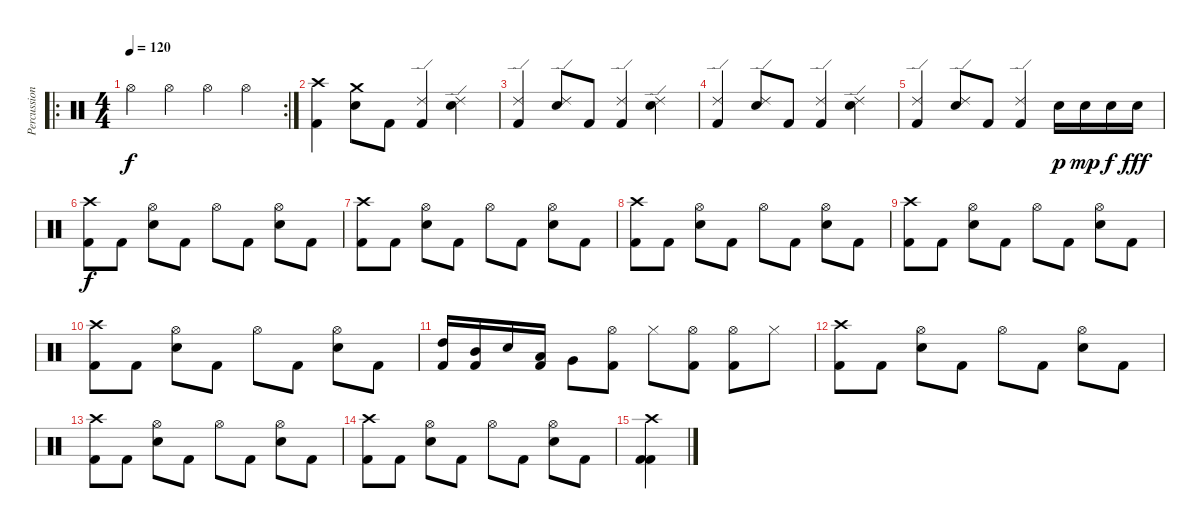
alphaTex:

\track ("Percussion" "Percussion") {instrument percussion}
\staff {score}
\articulation defaults
\ro
\rc 2
\ts (4 4)
\tempo 120
\clef neutral
\ks c "Hi-Hat (open)".4{dy f} "Hi-Hat (open)".4 "Hi-Hat (open)".4 "Hi-Hat (open)".4
|
("Crash high (hit)" "Kick (hit) 2").4 ("Crash medium (hit)" "Electric Snare (hit)").8 "Kick (hit) 2".8 ("Ride (edge) 2" "Kick (hit) 2").4 ("Electric Snare (hit)" "Ride (edge) 2").4 |
("Ride (edge) 2" "Kick (hit) 2").4 ("Electric Snare (hit)" "Ride (edge) 2").8 "Kick (hit) 2".8 ("Ride (edge) 2" "Kick (hit) 2").4 ("Electric Snare (hit)" "Ride (edge) 2").4 |
("Ride (edge) 2" "Kick (hit) 2").4 ("Electric Snare (hit)" "Ride (edge) 2").8 "Kick (hit) 2".8 ("Ride (edge) 2" "Kick (hit) 2").4 ("Electric Snare (hit)" "Ride (edge) 2").4 |
("Ride (edge) 2" "Kick (hit) 2").4 ("Electric Snare (hit)" "Ride (edge) 2").8 "Kick (hit) 2".8 ("Ride (edge) 2" "Kick (hit) 2").4 "Electric Snare (hit)".16{dy p} "Electric Snare (hit)".16{dy mp} "Electric Snare (hit)".16{dy f} "Electric Snare (hit)".16{dy fff} |
("Crash high (hit)" "Kick (hit) 2").8{dy f} "Kick (hit) 2".8 ("Electric Snare (hit)" "Hi-Hat (open)").8 "Kick (hit) 2".8 "Hi-Hat (open)".8 "Kick (hit) 2".8 ("Hi-Hat (open)" "Electric Snare (hit)").8 "Kick (hit) 2".8 |
("Crash high (hit)" "Kick (hit) 2").8 "Kick (hit) 2".8 ("Electric Snare (hit)" "Hi-Hat (open)").8 "Kick (hit) 2".8 "Hi-Hat (open)".8 "Kick (hit) 2".8 ("Hi-Hat (open)" "Electric Snare (hit)").8 "Kick (hit) 2".8 |
("Crash high (hit)" "Kick (hit) 2").8 "Kick (hit) 2".8 ("Electric Snare (hit)" "Hi-Hat (open)").8 "Kick (hit) 2".8 "Hi-Hat (open)".8 "Kick (hit) 2".8 ("Hi-Hat (open)" "Electric Snare (hit)").8 "Kick (hit) 2".8 |
("Crash high (hit)" "Kick (hit) 2").8 "Kick (hit) 2".8 ("Electric Snare (hit)" "Hi-Hat (open)").8 "Kick (hit) 2".8 "Hi-Hat (open)".8 "Kick (hit) 2".8 ("Hi-Hat (open)" "Electric Snare (hit)").8 "Kick (hit) 2".8 |
("Crash high (hit)" "Kick (hit) 2").8 "Kick (hit) 2".8 ("Electric Snare (hit)" "Hi-Hat (open)").8 "Kick (hit) 2".8 "Hi-Hat (open)".8 "Kick (hit) 2".8 ("Hi-Hat (open)" "Electric Snare (hit)").8 "Kick (hit) 2".8 |
("High Tom (hit)" "Kick (hit) 2").16 ("Mid Tom (hit)" "Kick (hit) 2").16 "Electric Snare (hit)".16 ("Low Tom (hit)" "Kick (hit) 2").16 "Very Low Tom (hit)".8 ("Hi-Hat (open)" "Kick (hit) 2").8 "Hi-Hat (closed)".8 ("Hi-Hat (open)" "Kick (hit) 2").8 ("Hi-Hat (open)" "Kick (hit) 2").8 "Hi-Hat (closed)".8 |
("Crash high (hit)" "Kick (hit) 2").8 "Kick (hit) 2".8 ("Electric Snare (hit)" "Hi-Hat (open)").8 "Kick (hit) 2".8 "Hi-Hat (open)".8 "Kick (hit) 2".8 ("Hi-Hat (open)" "Electric Snare (hit)").8 "Kick (hit) 2".8 |
("Crash high (hit)" "Kick (hit) 2").8 "Kick (hit) 2".8 ("Electric Snare (hit)" "Hi-Hat (open)").8 "Kick (hit) 2".8 "Hi-Hat (open)".8 "Kick (hit) 2".8 ("Hi-Hat (open)" "Electric Snare (hit)").8 "Kick (hit) 2".8 |
("Crash high (hit)" "Kick (hit) 2").8 "Kick (hit) 2".8 ("Electric Snare (hit)" "Hi-Hat (open)").8 "Kick (hit) 2".8 "Hi-Hat (open)".8 "Kick (hit) 2".8 ("Hi-Hat (open)" "Electric Snare (hit)").8 "Kick (hit) 2".8 |
("Crash high (hit)" "Kick (hit) 2" "Kick (hit) 2").4
